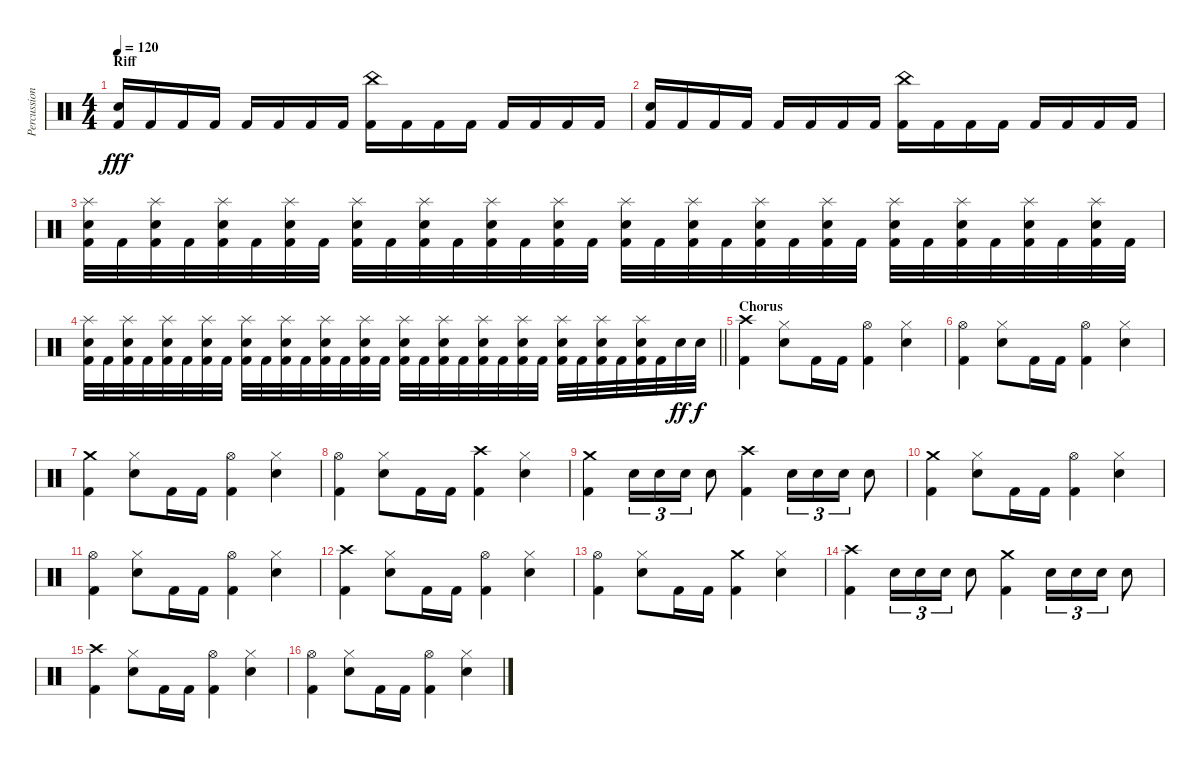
\track ("Percussion" "Percussion") {instrument percussion}
\staff {score}
\articulation defaults
\ts (4 4)
\section ("" "Riff")
\tempo 120
\clef neutral
\ks c
("Electric Snare (hit)" "Kick (hit) 2").16{dy fff} "Kick (hit) 2".16 "Kick (hit) 2".16 "Kick (hit) 2".16 "Kick (hit) 2".16 "Kick (hit) 2".16 "Kick (hit) 2".16 "Kick (hit) 2".16 ("China (hit)" "Kick (hit) 2").16 "Kick (hit) 2".16 "Kick (hit) 2".16 "Kick (hit) 2".16 "Kick (hit) 2".16 "Kick (hit) 2".16 "Kick (hit) 2".16 "Kick (hit) 2".16 |
("Electric Snare (hit)" "Kick (hit) 2").16 "Kick (hit) 2".16 "Kick (hit) 2".16 "Kick (hit) 2".16 "Kick (hit) 2".16 "Kick (hit) 2".16 "Kick (hit) 2".16 "Kick (hit) 2".16 ("China (hit)" "Kick (hit) 2").16 "Kick (hit) 2".16 "Kick (hit) 2".16 "Kick (hit) 2".16 "Kick (hit) 2".16 "Kick (hit) 2".16 "Kick (hit) 2".16 "Kick (hit) 2".16 |
("Splash (hit)" "Electric Snare (hit)" "Kick (hit) 2").32 "Kick (hit) 2".32 ("Splash (hit)" "Electric Snare (hit)" "Kick (hit) 2").32 "Kick (hit) 2".32 ("Splash (hit)" "Electric Snare (hit)" "Kick (hit) 2").32 "Kick (hit) 2".32 ("Splash (hit)" "Electric Snare (hit)" "Kick (hit) 2").32 "Kick (hit) 2".32 ("Splash (hit)" "Electric Snare (hit)" "Kick (hit) 2").32 "Kick (hit) 2".32 ("Splash (hit)" "Electric Snare (hit)" "Kick (hit) 2").32 "Kick (hit) 2".32 ("Splash (hit)" "Electric Snare (hit)" "Kick (hit) 2").32 "Kick (hit) 2".32 ("Splash (hit)" "Electric Snare (hit)" "Kick (hit) 2").32 "Kick (hit) 2".32 ("Splash (hit)" "Electric Snare (hit)" "Kick (hit) 2").32 "Kick (hit) 2".32 ("Splash (hit)" "Electric Snare (hit)" "Kick (hit) 2").32 "Kick (hit) 2".32 ("Splash (hit)" "Electric Snare (hit)" "Kick (hit) 2").32 "Kick (hit) 2".32 ("Splash (hit)" "Electric Snare (hit)" "Kick (hit) 2").32 "Kick (hit) 2".32 ("Splash (hit)" "Electric Snare (hit)" "Kick (hit) 2").32 "Kick (hit) 2".32 ("Splash (hit)" "Electric Snare (hit)" "Kick (hit) 2").32 "Kick (hit) 2".32 ("Splash (hit)" "Electric Snare (hit)" "Kick (hit) 2").32 "Kick (hit) 2".32 ("Splash (hit)" "Electric Snare (hit)" "Kick (hit) 2").32 "Kick (hit) 2".32 |
\barLineRight lightlight
("Splash (hit)" "Electric Snare (hit)" "Kick (hit) 2").32 "Kick (hit) 2".32 ("Splash (hit)" "Electric Snare (hit)" "Kick (hit) 2").32 "Kick (hit) 2".32 ("Splash (hit)" "Electric Snare (hit)" "Kick (hit) 2").32 "Kick (hit) 2".32 ("Splash (hit)" "Electric Snare (hit)" "Kick (hit) 2").32 "Kick (hit) 2".32 ("Splash (hit)" "Electric Snare (hit)" "Kick (hit) 2").32 "Kick (hit) 2".32 ("Splash (hit)" "Electric Snare (hit)" "Kick (hit) 2").32 "Kick (hit) 2".32 ("Splash (hit)" "Electric Snare (hit)" "Kick (hit) 2").32 "Kick (hit) 2".32 ("Splash (hit)" "Electric Snare (hit)" "Kick (hit) 2").32 "Kick (hit) 2".32 ("Splash (hit)" "Electric Snare (hit)" "Kick (hit) 2").32 "Kick (hit) 2".32 ("Splash (hit)" "Electric Snare (hit)" "Kick (hit) 2").32 "Kick (hit) 2".32 ("Splash (hit)" "Electric Snare (hit)" "Kick (hit) 2").32 "Kick (hit) 2".32 ("Splash (hit)" "Electric Snare (hit)" "Kick (hit) 2").32 "Kick (hit) 2".32 ("Splash (hit)" "Electric Snare (hit)" "Kick (hit) 2").32 "Kick (hit) 2".32 ("Splash (hit)" "Electric Snare (hit)" "Kick (hit) 2").32 "Kick (hit) 2".32 ("Splash (hit)" "Electric Snare (hit)" "Kick (hit) 2").32 "Kick (hit) 2".32 "Electric Snare (hit)".32{dy ff} "Electric Snare (hit)".32{dy f} |
\section ("" "Chorus")
("Crash high (hit)" "Kick (hit) 2").4 ("Hi-Hat (closed)" "Electric Snare (hit)").8 "Kick (hit) 2".16 "Kick (hit) 2".16 ("Hi-Hat (open)" "Kick (hit) 2").4 ("Hi-Hat (closed)" "Electric Snare (hit)").4 |
("Hi-Hat (open)" "Kick (hit) 2").4 ("Hi-Hat (closed)" "Electric Snare (hit)").8 "Kick (hit) 2".16 "Kick (hit) 2".16 ("Hi-Hat (open)" "Kick (hit) 2").4 ("Hi-Hat (closed)" "Electric Snare (hit)").4 |
("Crash medium (hit)" "Kick (hit) 2").4 ("Hi-Hat (closed)" "Electric Snare (hit)").8 "Kick (hit) 2".16 "Kick (hit) 2".16 ("Hi-Hat (open)" "Kick (hit) 2").4 ("Hi-Hat (closed)" "Electric Snare (hit)").4 |
("Hi-Hat (open)" "Kick (hit) 2").4 ("Hi-Hat (closed)" "Electric Snare (hit)").8 "Kick (hit) 2".16 "Kick (hit) 2".16 ("Crash high (hit)" "Kick (hit) 2").4 ("Hi-Hat (closed)" "Electric Snare (hit)").4 |
("Crash medium (hit)" "Kick (hit) 2").4 "Electric Snare (hit)".16{tu (3 2)} "Electric Snare (hit)".16{tu (3 2)} "Electric Snare (hit)".16{tu (3 2)} "Electric Snare (hit)".8 ("Crash high (hit)" "Kick (hit) 2").4 "Electric Snare (hit)".16{tu (3 2)} "Electric Snare (hit)".16{tu (3 2)} "Electric Snare (hit)".16{tu (3 2)} "Electric Snare (hit)".8 |
("Crash medium (hit)" "Kick (hit) 2").4 ("Hi-Hat (closed)" "Electric Snare (hit)").8 "Kick (hit) 2".16 "Kick (hit) 2".16 ("Hi-Hat (open)" "Kick (hit) 2").4 ("Hi-Hat (closed)" "Electric Snare (hit)").4 |
("Hi-Hat (open)" "Kick (hit) 2").4 ("Hi-Hat (closed)" "Electric Snare (hit)").8 "Kick (hit) 2".16 "Kick (hit) 2".16 ("Hi-Hat (open)" "Kick (hit) 2").4 ("Hi-Hat (closed)" "Electric Snare (hit)").4 |
("Crash high (hit)" "Kick (hit) 2").4 ("Hi-Hat (closed)" "Electric Snare (hit)").8 "Kick (hit) 2".16 "Kick (hit) 2".16 ("Hi-Hat (open)" "Kick (hit) 2").4 ("Hi-Hat (closed)" "Electric Snare (hit)").4 |
("Hi-Hat (open)" "Kick (hit) 2").4 ("Hi-Hat (closed)" "Electric Snare (hit)").8 "Kick (hit) 2".16 "Kick (hit) 2".16 ("Crash medium (hit)" "Kick (hit) 2").4 ("Hi-Hat (closed)" "Electric Snare (hit)").4 |
("Crash high (hit)" "Kick (hit) 2").4 "Electric Snare (hit)".16{tu (3 2)} "Electric Snare (hit)".16{tu (3 2)} "Electric Snare (hit)".16{tu (3 2)} "Electric Snare (hit)".8 ("Crash medium (hit)" "Kick (hit) 2").4 "Electric Snare (hit)".16{tu (3 2)} "Electric Snare (hit)".16{tu (3 2)} "Electric Snare (hit)".16{tu (3 2)} "Electric Snare (hit)".8 |
("Crash high (hit)" "Kick (hit) 2").4 ("Hi-Hat (closed)" "Electric Snare (hit)").8 "Kick (hit) 2".16 "Kick (hit) 2".16 ("Hi-Hat (open)" "Kick (hit) 2").4 ("Hi-Hat (closed)" "Electric Snare (hit)").4 |
("Hi-Hat (open)" "Kick (hit) 2").4 ("Hi-Hat (closed)" "Electric Snare (hit)").8 "Kick (hit) 2".16 "Kick (hit) 2".16 ("Hi-Hat (open)" "Kick (hit) 2").4 ("Hi-Hat (closed)" "Electric Snare (hit)").4
